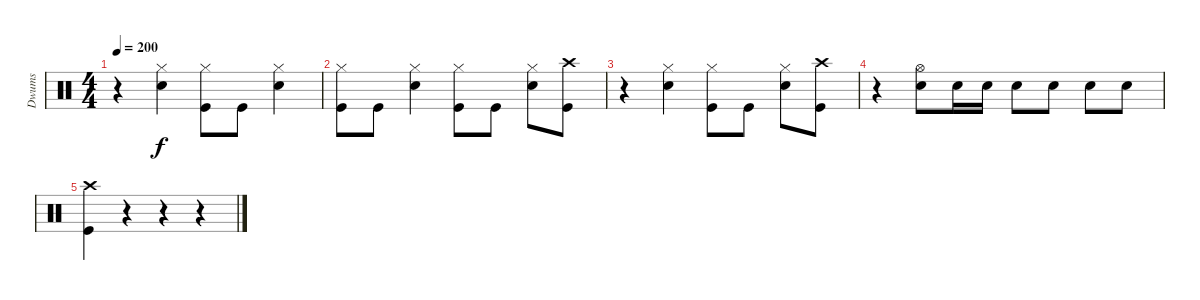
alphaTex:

\track ("Dwums" "Dwums") {instrument percussion}
\staff {score}
\articulation defaults
\ts (4 4)
\tempo 200
\clef neutral
\ks c
r.4{dy f} ("Snare (hit) 2" "Hi-Hat (closed)").4 ("Hi-Hat (closed)" "Kick (hit)").8 "Kick (hit)".8 ("Snare (hit) 2" "Hi-Hat (closed)").4 |
("Hi-Hat (closed)" "Kick (hit)").8 "Kick (hit)".8 ("Snare (hit) 2" "Hi-Hat (closed)").4 ("Hi-Hat (closed)" "Kick (hit)").8 "Kick (hit)".8 ("Snare (hit) 2" "Hi-Hat (closed)").8 ("Kick (hit)" "Crash high (hit)").8 |
r.4 ("Hi-Hat (closed)" "Snare (hit) 2").4 ("Hi-Hat (closed)" "Kick (hit)").8 "Kick (hit)".8 ("Snare (hit) 2" "Hi-Hat (closed)").8 ("Kick (hit)" "Crash high (hit)").8 |
r.4 ("Snare (hit) 2" "Hi-Hat (open)").8 "Snare (hit) 2".16 "Snare (hit) 2".16 "Snare (hit) 2".8 "Snare (hit) 2".8 "Snare (hit) 2".8 "Snare (hit) 2".8 |
("Kick (hit)" "Crash high (hit)").4 r.4 r.4 r.4
